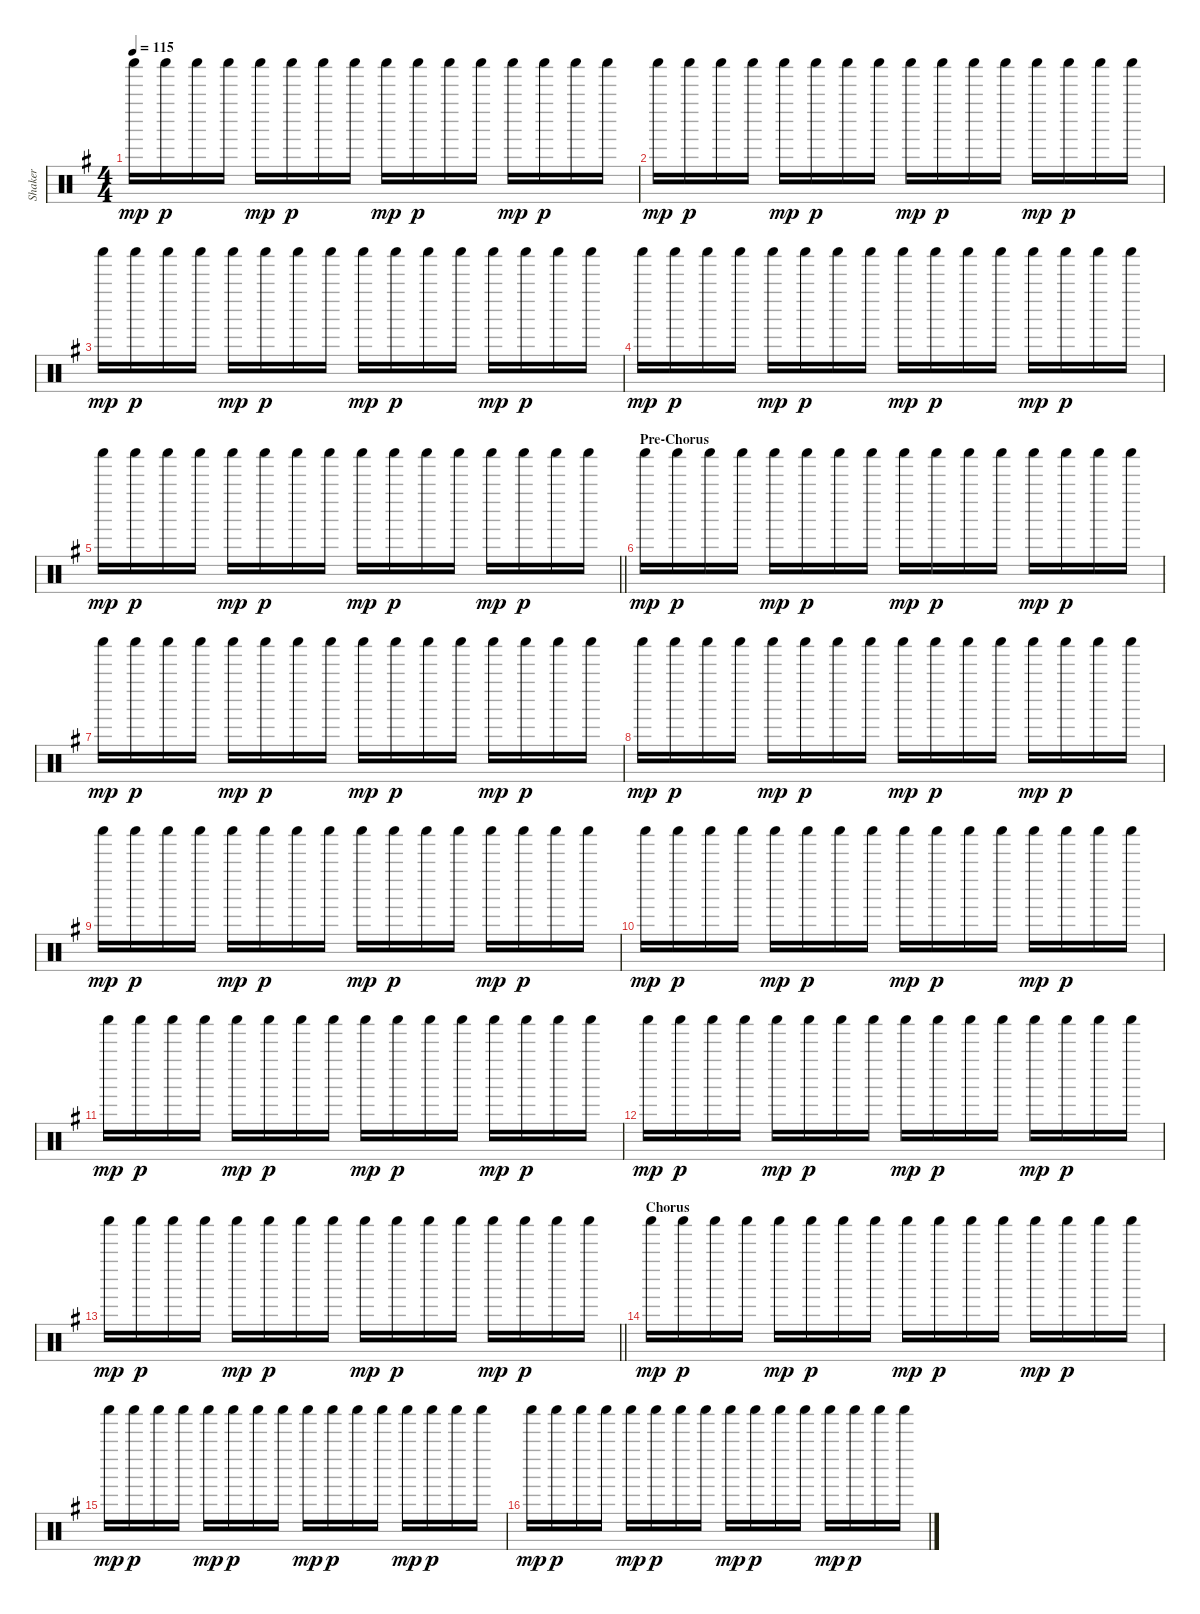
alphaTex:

\track ("Shaker" "Shaker") {instrument percussion}
\staff {score}
\articulation defaults
\ts (4 4)
\tempo 115
\clef neutral
\ks g "Shaker (hit)".16{dy mp} "Shaker (hit)".16{dy p} "Shaker (hit)".16 "Shaker (hit)".16 "Shaker (hit)".16{dy mp} "Shaker (hit)".16{dy p} "Shaker (hit)".16 "Shaker (hit)".16 "Shaker (hit)".16{dy mp} "Shaker (hit)".16{dy p} "Shaker (hit)".16 "Shaker (hit)".16 "Shaker (hit)".16{dy mp} "Shaker (hit)".16{dy p} "Shaker (hit)".16 "Shaker (hit)".16
|
"Shaker (hit)".16{dy mp} "Shaker (hit)".16{dy p} "Shaker (hit)".16 "Shaker (hit)".16 "Shaker (hit)".16{dy mp} "Shaker (hit)".16{dy p} "Shaker (hit)".16 "Shaker (hit)".16 "Shaker (hit)".16{dy mp} "Shaker (hit)".16{dy p} "Shaker (hit)".16 "Shaker (hit)".16 "Shaker (hit)".16{dy mp} "Shaker (hit)".16{dy p} "Shaker (hit)".16 "Shaker (hit)".16 |
"Shaker (hit)".16{dy mp} "Shaker (hit)".16{dy p} "Shaker (hit)".16 "Shaker (hit)".16 "Shaker (hit)".16{dy mp} "Shaker (hit)".16{dy p} "Shaker (hit)".16 "Shaker (hit)".16 "Shaker (hit)".16{dy mp} "Shaker (hit)".16{dy p} "Shaker (hit)".16 "Shaker (hit)".16 "Shaker (hit)".16{dy mp} "Shaker (hit)".16{dy p} "Shaker (hit)".16 "Shaker (hit)".16 |
"Shaker (hit)".16{dy mp} "Shaker (hit)".16{dy p} "Shaker (hit)".16 "Shaker (hit)".16 "Shaker (hit)".16{dy mp} "Shaker (hit)".16{dy p} "Shaker (hit)".16 "Shaker (hit)".16 "Shaker (hit)".16{dy mp} "Shaker (hit)".16{dy p} "Shaker (hit)".16 "Shaker (hit)".16 "Shaker (hit)".16{dy mp} "Shaker (hit)".16{dy p} "Shaker (hit)".16 "Shaker (hit)".16 |
\barLineRight lightlight "Shaker (hit)".16{dy mp} "Shaker (hit)".16{dy p} "Shaker (hit)".16 "Shaker (hit)".16 "Shaker (hit)".16{dy mp} "Shaker (hit)".16{dy p} "Shaker (hit)".16 "Shaker (hit)".16 "Shaker (hit)".16{dy mp} "Shaker (hit)".16{dy p} "Shaker (hit)".16 "Shaker (hit)".16 "Shaker (hit)".16{dy mp} "Shaker (hit)".16{dy p} "Shaker (hit)".16 "Shaker (hit)".16
|
\section ("" "Pre-Chorus")
"Shaker (hit)".16{dy mp} "Shaker (hit)".16{dy p} "Shaker (hit)".16 "Shaker (hit)".16 "Shaker (hit)".16{dy mp} "Shaker (hit)".16{dy p} "Shaker (hit)".16 "Shaker (hit)".16 "Shaker (hit)".16{dy mp} "Shaker (hit)".16{dy p} "Shaker (hit)".16 "Shaker (hit)".16 "Shaker (hit)".16{dy mp} "Shaker (hit)".16{dy p} "Shaker (hit)".16 "Shaker (hit)".16 |
"Shaker (hit)".16{dy mp} "Shaker (hit)".16{dy p} "Shaker (hit)".16 "Shaker (hit)".16 "Shaker (hit)".16{dy mp} "Shaker (hit)".16{dy p} "Shaker (hit)".16 "Shaker (hit)".16 "Shaker (hit)".16{dy mp} "Shaker (hit)".16{dy p} "Shaker (hit)".16 "Shaker (hit)".16 "Shaker (hit)".16{dy mp} "Shaker (hit)".16{dy p} "Shaker (hit)".16 "Shaker (hit)".16 |
"Shaker (hit)".16{dy mp} "Shaker (hit)".16{dy p} "Shaker (hit)".16 "Shaker (hit)".16 "Shaker (hit)".16{dy mp} "Shaker (hit)".16{dy p} "Shaker (hit)".16 "Shaker (hit)".16 "Shaker (hit)".16{dy mp} "Shaker (hit)".16{dy p} "Shaker (hit)".16 "Shaker (hit)".16 "Shaker (hit)".16{dy mp} "Shaker (hit)".16{dy p} "Shaker (hit)".16 "Shaker (hit)".16 |
"Shaker (hit)".16{dy mp} "Shaker (hit)".16{dy p} "Shaker (hit)".16 "Shaker (hit)".16 "Shaker (hit)".16{dy mp} "Shaker (hit)".16{dy p} "Shaker (hit)".16 "Shaker (hit)".16 "Shaker (hit)".16{dy mp} "Shaker (hit)".16{dy p} "Shaker (hit)".16 "Shaker (hit)".16 "Shaker (hit)".16{dy mp} "Shaker (hit)".16{dy p} "Shaker (hit)".16 "Shaker (hit)".16 |
"Shaker (hit)".16{dy mp} "Shaker (hit)".16{dy p} "Shaker (hit)".16 "Shaker (hit)".16 "Shaker (hit)".16{dy mp} "Shaker (hit)".16{dy p} "Shaker (hit)".16 "Shaker (hit)".16 "Shaker (hit)".16{dy mp} "Shaker (hit)".16{dy p} "Shaker (hit)".16 "Shaker (hit)".16 "Shaker (hit)".16{dy mp} "Shaker (hit)".16{dy p} "Shaker (hit)".16 "Shaker (hit)".16 |
"Shaker (hit)".16{dy mp} "Shaker (hit)".16{dy p} "Shaker (hit)".16 "Shaker (hit)".16 "Shaker (hit)".16{dy mp} "Shaker (hit)".16{dy p} "Shaker (hit)".16 "Shaker (hit)".16 "Shaker (hit)".16{dy mp} "Shaker (hit)".16{dy p} "Shaker (hit)".16 "Shaker (hit)".16 "Shaker (hit)".16{dy mp} "Shaker (hit)".16{dy p} "Shaker (hit)".16 "Shaker (hit)".16 |
"Shaker (hit)".16{dy mp} "Shaker (hit)".16{dy p} "Shaker (hit)".16 "Shaker (hit)".16 "Shaker (hit)".16{dy mp} "Shaker (hit)".16{dy p} "Shaker (hit)".16 "Shaker (hit)".16 "Shaker (hit)".16{dy mp} "Shaker (hit)".16{dy p} "Shaker (hit)".16 "Shaker (hit)".16 "Shaker (hit)".16{dy mp} "Shaker (hit)".16{dy p} "Shaker (hit)".16 "Shaker (hit)".16 |
\barLineRight lightlight "Shaker (hit)".16{dy mp} "Shaker (hit)".16{dy p} "Shaker (hit)".16 "Shaker (hit)".16 "Shaker (hit)".16{dy mp} "Shaker (hit)".16{dy p} "Shaker (hit)".16 "Shaker (hit)".16 "Shaker (hit)".16{dy mp} "Shaker (hit)".16{dy p} "Shaker (hit)".16 "Shaker (hit)".16 "Shaker (hit)".16{dy mp} "Shaker (hit)".16{dy p} "Shaker (hit)".16 "Shaker (hit)".16
|
\section ("" "Chorus")
"Shaker (hit)".16{dy mp} "Shaker (hit)".16{dy p} "Shaker (hit)".16 "Shaker (hit)".16 "Shaker (hit)".16{dy mp} "Shaker (hit)".16{dy p} "Shaker (hit)".16 "Shaker (hit)".16 "Shaker (hit)".16{dy mp} "Shaker (hit)".16{dy p} "Shaker (hit)".16 "Shaker (hit)".16 "Shaker (hit)".16{dy mp} "Shaker (hit)".16{dy p} "Shaker (hit)".16 "Shaker (hit)".16 |
"Shaker (hit)".16{dy mp} "Shaker (hit)".16{dy p} "Shaker (hit)".16 "Shaker (hit)".16 "Shaker (hit)".16{dy mp} "Shaker (hit)".16{dy p} "Shaker (hit)".16 "Shaker (hit)".16 "Shaker (hit)".16{dy mp} "Shaker (hit)".16{dy p} "Shaker (hit)".16 "Shaker (hit)".16 "Shaker (hit)".16{dy mp} "Shaker (hit)".16{dy p} "Shaker (hit)".16 "Shaker (hit)".16 |
"Shaker (hit)".16{dy mp} "Shaker (hit)".16{dy p} "Shaker (hit)".16 "Shaker (hit)".16 "Shaker (hit)".16{dy mp} "Shaker (hit)".16{dy p} "Shaker (hit)".16 "Shaker (hit)".16 "Shaker (hit)".16{dy mp} "Shaker (hit)".16{dy p} "Shaker (hit)".16 "Shaker (hit)".16 "Shaker (hit)".16{dy mp} "Shaker (hit)".16{dy p} "Shaker (hit)".16 "Shaker (hit)".16
